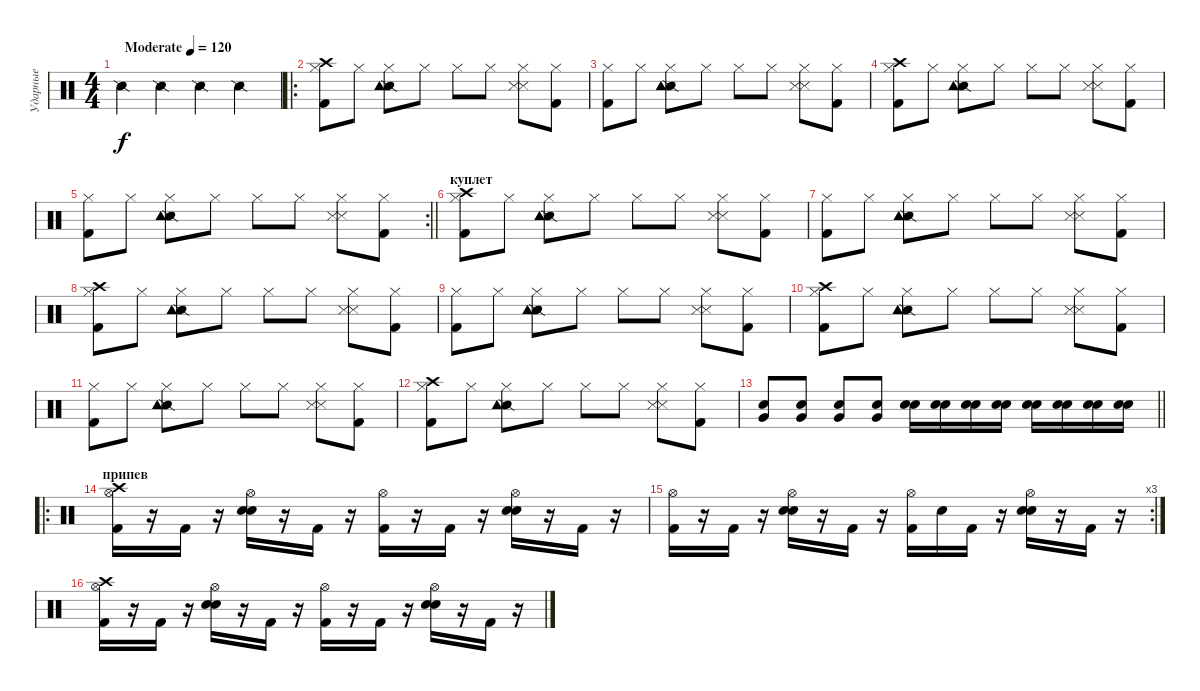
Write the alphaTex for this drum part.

\track ("Ударные" "Ударные") {instrument percussion}
\staff {score}
\articulation defaults
\ts (4 4)
\tempo (120 "Moderate")
\clef neutral
\ks c "Snare (side stick) 2".4{dy f} "Snare (side stick) 2".4 "Snare (side stick) 2".4 "Snare (side stick) 2".4
|
\ro
("Crash high (hit)" "Kick (hit) 2" "Hi-Hat (closed)").8 "Hi-Hat (closed)".8 ("Snare (side stick) 2" "Tambourine (hit)" "Tambourine (hit)" "Hi-Hat (closed)").8 "Hi-Hat (closed)".8 "Hi-Hat (closed)".8 "Hi-Hat (closed)".8 ("Snare (side stick) 3" "Snare (side stick) 3" "Hi-Hat (closed)").8 ("Kick (hit) 2" "Hi-Hat (closed)").8 |
("Kick (hit) 2" "Hi-Hat (closed)").8 "Hi-Hat (closed)".8 ("Snare (side stick) 2" "Tambourine (hit)" "Tambourine (hit)" "Hi-Hat (closed)").8 "Hi-Hat (closed)".8 "Hi-Hat (closed)".8 "Hi-Hat (closed)".8 ("Snare (side stick) 3" "Snare (side stick) 3" "Hi-Hat (closed)").8 ("Kick (hit) 2" "Hi-Hat (closed)").8 |
("Crash high (hit)" "Kick (hit) 2" "Hi-Hat (closed)").8 "Hi-Hat (closed)".8 ("Snare (side stick) 2" "Tambourine (hit)" "Tambourine (hit)" "Hi-Hat (closed)").8 "Hi-Hat (closed)".8 "Hi-Hat (closed)".8 "Hi-Hat (closed)".8 ("Snare (side stick) 3" "Snare (side stick) 3" "Hi-Hat (closed)").8 ("Kick (hit) 2" "Hi-Hat (closed)").8 |
\rc 2
\barLineRight lightlight
("Kick (hit) 2" "Hi-Hat (closed)").8 "Hi-Hat (closed)".8 ("Snare (side stick) 2" "Tambourine (hit)" "Tambourine (hit)" "Hi-Hat (closed)").8 "Hi-Hat (closed)".8 "Hi-Hat (closed)".8 "Hi-Hat (closed)".8 ("Snare (side stick) 3" "Snare (side stick) 3" "Hi-Hat (closed)").8 ("Kick (hit) 2" "Hi-Hat (closed)").8 |
\section ("" "куплет")
("Crash high (hit)" "Kick (hit) 2" "Hi-Hat (closed)").8 "Hi-Hat (closed)".8 ("Snare (side stick) 2" "Tambourine (hit)" "Tambourine (hit)" "Hi-Hat (closed)").8 "Hi-Hat (closed)".8 "Hi-Hat (closed)".8 "Hi-Hat (closed)".8 ("Snare (side stick) 3" "Snare (side stick) 3" "Hi-Hat (closed)").8 ("Kick (hit) 2" "Hi-Hat (closed)").8 |
("Kick (hit) 2" "Hi-Hat (closed)").8 "Hi-Hat (closed)".8 ("Snare (side stick) 2" "Tambourine (hit)" "Tambourine (hit)" "Hi-Hat (closed)").8 "Hi-Hat (closed)".8 "Hi-Hat (closed)".8 "Hi-Hat (closed)".8 ("Snare (side stick) 3" "Snare (side stick) 3" "Hi-Hat (closed)").8 ("Kick (hit) 2" "Hi-Hat (closed)").8 |
("Crash high (hit)" "Kick (hit) 2" "Hi-Hat (closed)").8 "Hi-Hat (closed)".8 ("Snare (side stick) 2" "Tambourine (hit)" "Tambourine (hit)" "Hi-Hat (closed)").8 "Hi-Hat (closed)".8 "Hi-Hat (closed)".8 "Hi-Hat (closed)".8 ("Snare (side stick) 3" "Snare (side stick) 3" "Hi-Hat (closed)").8 ("Kick (hit) 2" "Hi-Hat (closed)").8 |
("Kick (hit) 2" "Hi-Hat (closed)").8 "Hi-Hat (closed)".8 ("Snare (side stick) 2" "Tambourine (hit)" "Tambourine (hit)" "Hi-Hat (closed)").8 "Hi-Hat (closed)".8 "Hi-Hat (closed)".8 "Hi-Hat (closed)".8 ("Snare (side stick) 3" "Snare (side stick) 3" "Hi-Hat (closed)").8 ("Kick (hit) 2" "Hi-Hat (closed)").8 |
("Crash high (hit)" "Kick (hit) 2" "Hi-Hat (closed)").8 "Hi-Hat (closed)".8 ("Snare (side stick) 2" "Tambourine (hit)" "Tambourine (hit)" "Hi-Hat (closed)").8 "Hi-Hat (closed)".8 "Hi-Hat (closed)".8 "Hi-Hat (closed)".8 ("Snare (side stick) 3" "Snare (side stick) 3" "Hi-Hat (closed)").8 ("Kick (hit) 2" "Hi-Hat (closed)").8 |
("Kick (hit) 2" "Hi-Hat (closed)").8 "Hi-Hat (closed)".8 ("Snare (side stick) 2" "Tambourine (hit)" "Tambourine (hit)" "Hi-Hat (closed)").8 "Hi-Hat (closed)".8 "Hi-Hat (closed)".8 "Hi-Hat (closed)".8 ("Snare (side stick) 3" "Snare (side stick) 3" "Hi-Hat (closed)").8 ("Kick (hit) 2" "Hi-Hat (closed)").8 |
("Crash high (hit)" "Kick (hit) 2" "Hi-Hat (closed)").8 "Hi-Hat (closed)".8 ("Snare (side stick) 2" "Tambourine (hit)" "Tambourine (hit)" "Hi-Hat (closed)").8 "Hi-Hat (closed)".8 "Hi-Hat (closed)".8 "Hi-Hat (closed)".8 ("Snare (side stick) 3" "Snare (side stick) 3" "Hi-Hat (closed)").8 ("Kick (hit) 2" "Hi-Hat (closed)").8 |
\barLineRight lightlight
("Very Low Tom (hit)" "Electric Snare (hit)").8 ("Very Low Tom (hit)" "Electric Snare (hit)").8 ("Very Low Tom (hit)" "Electric Snare (hit)").8 ("Very Low Tom (hit)" "Electric Snare (hit)").8 ("Electric Snare (hit)" "Electric Snare (hit)").16 ("Electric Snare (hit)" "Electric Snare (hit)").16 ("Electric Snare (hit)" "Electric Snare (hit)").16 ("Electric Snare (hit)" "Electric Snare (hit)").16 ("Electric Snare (hit)" "Electric Snare (hit)").16 ("Electric Snare (hit)" "Electric Snare (hit)").16 ("Electric Snare (hit)" "Electric Snare (hit)").16 ("Electric Snare (hit)" "Electric Snare (hit)").16 |
\ro
\section ("" "припев")
("Crash high (hit)" "Kick (hit) 2" "Hi-Hat (open)").16 r.16 "Kick (hit) 2".16 r.16 ("Electric Snare (hit)" "Electric Snare (hit)" "Hi-Hat (open)").16 r.16 "Kick (hit) 2".16 r.16 ("Kick (hit) 2" "Hi-Hat (open)").16 r.16 "Kick (hit) 2".16 r.16 ("Electric Snare (hit)" "Electric Snare (hit)" "Hi-Hat (open)").16 r.16 "Kick (hit) 2".16 r.16 |
\rc 3
("Kick (hit) 2" "Hi-Hat (open)").16 r.16 "Kick (hit) 2".16 r.16 ("Electric Snare (hit)" "Electric Snare (hit)" "Hi-Hat (open)").16 r.16 "Kick (hit) 2".16 r.16 ("Kick (hit) 2" "Hi-Hat (open)").16 "Electric Snare (hit)".16 "Kick (hit) 2".16 r.16 ("Electric Snare (hit)" "Electric Snare (hit)" "Hi-Hat (open)").16 r.16 "Kick (hit) 2".16 r.16 |
("Crash high (hit)" "Kick (hit) 2" "Hi-Hat (open)").16 r.16 "Kick (hit) 2".16 r.16 ("Electric Snare (hit)" "Electric Snare (hit)" "Hi-Hat (open)").16 r.16 "Kick (hit) 2".16 r.16 ("Kick (hit) 2" "Hi-Hat (open)").16 r.16 "Kick (hit) 2".16 r.16 ("Electric Snare (hit)" "Electric Snare (hit)" "Hi-Hat (open)").16 r.16 "Kick (hit) 2".16 r.16
